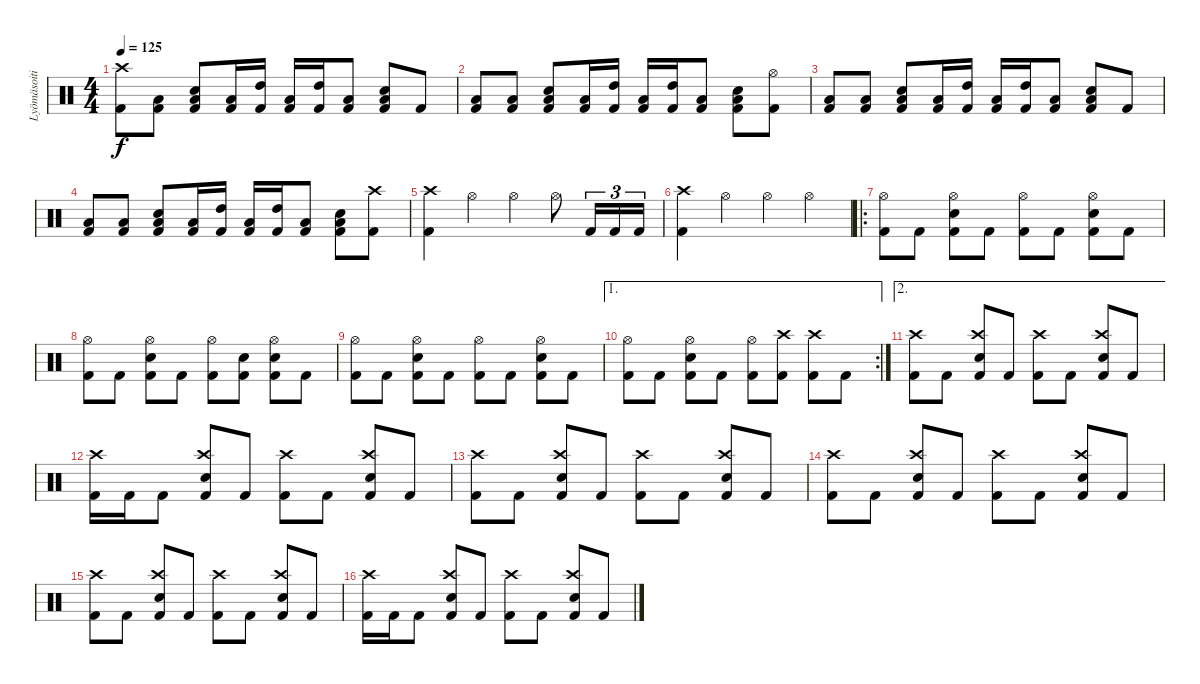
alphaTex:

\track ("Lyömäsoitin" "Lyömäsoiti") {instrument percussion}
\staff {score}
\articulation defaults
\ts (4 4)
\tempo 125
\clef neutral
\ks c
("Kick (hit) 2" "Crash high (hit)").8{dy f} ("Kick (hit) 2" "Low Tom (hit)").8 ("Kick (hit) 2" "Low Tom (hit)" "Electric Snare (hit)").8 ("Kick (hit) 2" "Low Tom (hit)").16 ("Kick (hit) 2" "High Tom (hit)").16 ("Kick (hit) 2" "Low Tom (hit)").16 ("Kick (hit) 2" "High Tom (hit)").16 ("Kick (hit) 2" "Low Tom (hit)").8 ("Kick (hit) 2" "Electric Snare (hit)" "Low Tom (hit)").8 "Kick (hit) 2".8 |
("Kick (hit) 2" "Low Tom (hit)").8 ("Kick (hit) 2" "Low Tom (hit)").8 ("Kick (hit) 2" "Low Tom (hit)" "Electric Snare (hit)").8 ("Kick (hit) 2" "Low Tom (hit)").16 ("Kick (hit) 2" "High Tom (hit)").16 ("Kick (hit) 2" "Low Tom (hit)").16 ("Kick (hit) 2" "High Tom (hit)").16 ("Kick (hit) 2" "Low Tom (hit)").8 ("Kick (hit) 2" "Electric Snare (hit)" "Low Tom (hit)").8 ("Kick (hit) 2" "Hi-Hat (open)").8 |
("Kick (hit) 2" "Low Tom (hit)").8 ("Kick (hit) 2" "Low Tom (hit)").8 ("Kick (hit) 2" "Low Tom (hit)" "Electric Snare (hit)").8 ("Kick (hit) 2" "Low Tom (hit)").16 ("Kick (hit) 2" "High Tom (hit)").16 ("Kick (hit) 2" "Low Tom (hit)").16 ("Kick (hit) 2" "High Tom (hit)").16 ("Kick (hit) 2" "Low Tom (hit)").8 ("Kick (hit) 2" "Electric Snare (hit)" "Low Tom (hit)").8 "Kick (hit) 2".8 |
("Kick (hit) 2" "Low Tom (hit)").8 ("Kick (hit) 2" "Low Tom (hit)").8 ("Kick (hit) 2" "Low Tom (hit)" "Electric Snare (hit)").8 ("Kick (hit) 2" "Low Tom (hit)").16 ("Kick (hit) 2" "High Tom (hit)").16 ("Kick (hit) 2" "Low Tom (hit)").16 ("Kick (hit) 2" "High Tom (hit)").16 ("Kick (hit) 2" "Low Tom (hit)").8 ("Kick (hit) 2" "Electric Snare (hit)" "Low Tom (hit)").8 ("Kick (hit) 2" "Crash high (hit)").8 |
("Kick (hit) 2" "Crash high (hit)").4 "Hi-Hat (open)".4 "Hi-Hat (open)".4 "Hi-Hat (open)".8 "Kick (hit) 2".16{tu (3 2)} "Kick (hit) 2".16{tu (3 2)} "Kick (hit) 2".16{tu (3 2)} |
("Kick (hit) 2" "Crash high (hit)").4 "Hi-Hat (open)".4 "Hi-Hat (open)".4 "Hi-Hat (open)".4 |
\ro
("Kick (hit) 2" "Hi-Hat (open)").8 "Kick (hit) 2".8 ("Kick (hit) 2" "Hi-Hat (open)" "Electric Snare (hit)").8 "Kick (hit) 2".8 ("Kick (hit) 2" "Hi-Hat (open)").8 "Kick (hit) 2".8 ("Kick (hit) 2" "Hi-Hat (open)" "Electric Snare (hit)").8 "Kick (hit) 2".8 |
("Kick (hit) 2" "Hi-Hat (open)").8 "Kick (hit) 2".8 ("Kick (hit) 2" "Hi-Hat (open)" "Electric Snare (hit)").8 "Kick (hit) 2".8 ("Kick (hit) 2" "Hi-Hat (open)").8 ("Kick (hit) 2" "Snare (hit)").8 ("Kick (hit) 2" "Hi-Hat (open)" "Electric Snare (hit)").8 "Kick (hit) 2".8 |
("Kick (hit) 2" "Hi-Hat (open)").8 "Kick (hit) 2".8 ("Kick (hit) 2" "Hi-Hat (open)" "Electric Snare (hit)").8 "Kick (hit) 2".8 ("Kick (hit) 2" "Hi-Hat (open)").8 "Kick (hit) 2".8 ("Kick (hit) 2" "Hi-Hat (open)" "Electric Snare (hit)").8 "Kick (hit) 2".8 |
\ae 1
\rc 2
("Kick (hit) 2" "Hi-Hat (open)").8 "Kick (hit) 2".8 ("Kick (hit) 2" "Hi-Hat (open)" "Electric Snare (hit)").8 "Kick (hit) 2".8 ("Kick (hit) 2" "Hi-Hat (open)").8 ("Kick (hit) 2" "Crash high (hit)").8 ("Kick (hit) 2" "Crash high (hit)").8 "Kick (hit) 2".8 |
\ae 2
("Kick (hit) 2" "Crash high (hit)").8 "Kick (hit) 2".8 ("Kick (hit) 2" "Crash high (hit)" "Electric Snare (hit)").8 "Kick (hit) 2".8 ("Kick (hit) 2" "Crash high (hit)").8 "Kick (hit) 2".8 ("Kick (hit) 2" "Crash high (hit)" "Electric Snare (hit)").8 "Kick (hit) 2".8 |
("Kick (hit) 2" "Crash high (hit)").16 "Kick (hit) 2".16 "Kick (hit) 2".8 ("Kick (hit) 2" "Crash high (hit)" "Electric Snare (hit)").8 "Kick (hit) 2".8 ("Kick (hit) 2" "Crash high (hit)").8 "Kick (hit) 2".8 ("Kick (hit) 2" "Crash high (hit)" "Electric Snare (hit)").8 "Kick (hit) 2".8 |
("Kick (hit) 2" "Crash high (hit)").8 "Kick (hit) 2".8 ("Kick (hit) 2" "Crash high (hit)" "Electric Snare (hit)").8 "Kick (hit) 2".8 ("Kick (hit) 2" "Crash high (hit)").8 "Kick (hit) 2".8 ("Kick (hit) 2" "Crash high (hit)" "Electric Snare (hit)").8 "Kick (hit) 2".8 |
("Kick (hit) 2" "Crash high (hit)").8 "Kick (hit) 2".8 ("Kick (hit) 2" "Crash high (hit)" "Electric Snare (hit)").8 "Kick (hit) 2".8 ("Kick (hit) 2" "Crash high (hit)").8 "Kick (hit) 2".8 ("Kick (hit) 2" "Crash high (hit)" "Electric Snare (hit)").8 "Kick (hit) 2".8 |
("Kick (hit) 2" "Crash high (hit)").8 "Kick (hit) 2".8 ("Kick (hit) 2" "Crash high (hit)" "Electric Snare (hit)").8 "Kick (hit) 2".8 ("Kick (hit) 2" "Crash high (hit)").8 "Kick (hit) 2".8 ("Kick (hit) 2" "Crash high (hit)" "Electric Snare (hit)").8 "Kick (hit) 2".8 |
("Kick (hit) 2" "Crash high (hit)").16 "Kick (hit) 2".16 "Kick (hit) 2".8 ("Kick (hit) 2" "Crash high (hit)" "Electric Snare (hit)").8 "Kick (hit) 2".8 ("Kick (hit) 2" "Crash high (hit)").8 "Kick (hit) 2".8 ("Kick (hit) 2" "Crash high (hit)" "Electric Snare (hit)").8 "Kick (hit) 2".8
